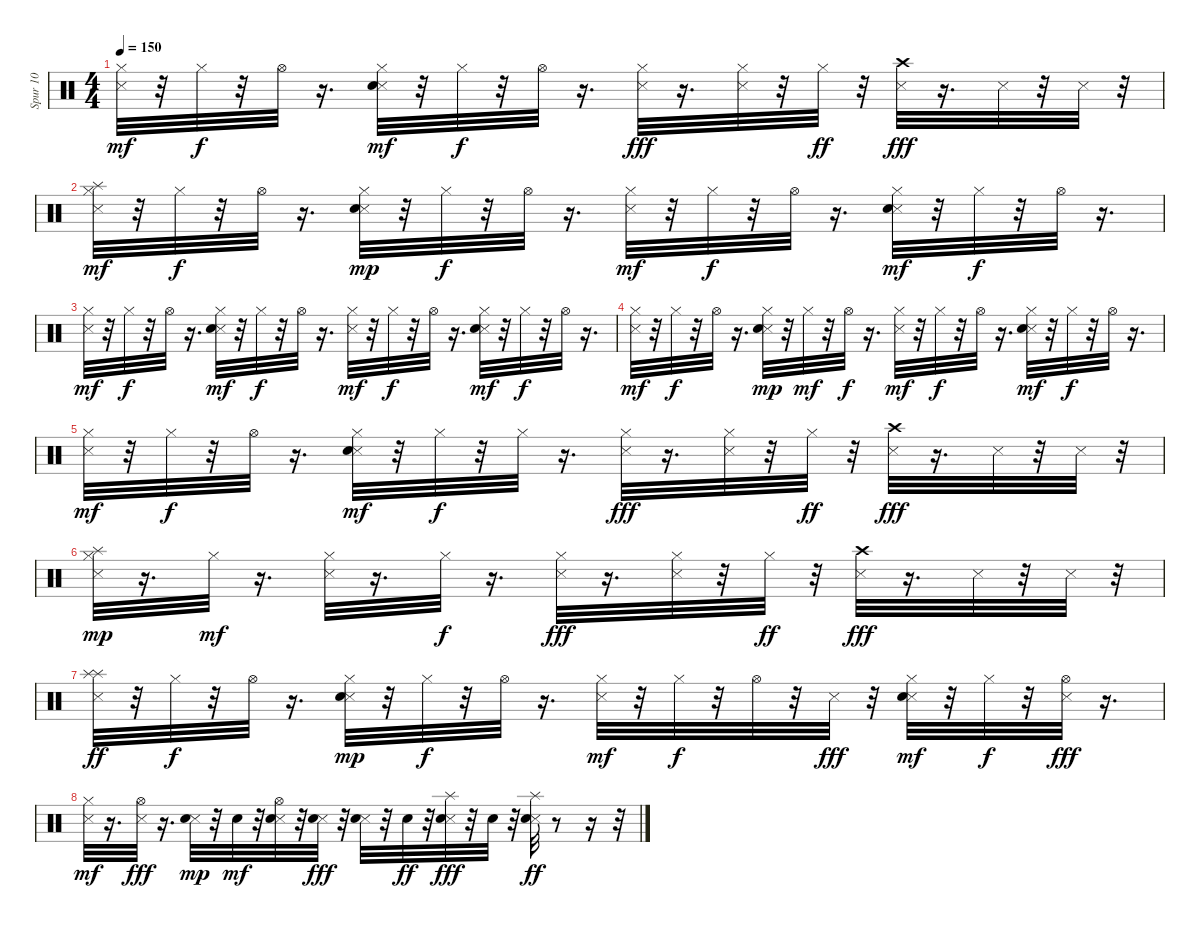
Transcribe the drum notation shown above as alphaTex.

\track ("Spur 10" "Spur 10") {instrument percussion}
\staff {score}
\articulation defaults
\ts (4 4)
\tempo 150
\clef neutral
\ks c
("Metronome (hit)" "Hi-Hat (closed)").32{dy mf} r.32 "Hi-Hat (closed)".32{dy f} r.32 "Hi-Hat (open)".32 r.16{d} ("Metronome (hit)" "Snare (hit) 2" "Hi-Hat (closed)").32{dy mf} r.32 "Hi-Hat (closed)".32{dy f} r.32 "Hi-Hat (open)".32 r.16{d} ("Metronome (hit)" "Hi-Hat (closed)").32{dy fff} r.16{d} ("Metronome (hit)" "Hi-Hat (closed)").32 r.32 "Hi-Hat (closed)".32{dy ff} r.32 ("Metronome (hit)" "Crash high (hit)").32{dy fff} r.16{d} "Metronome (hit)".32 r.32 "Metronome (hit)".32 r.32 |
("Splash (hit)" "Metronome (hit)" "Hi-Hat (closed)").32{dy mf} r.32 "Hi-Hat (closed)".32{dy f} r.32 "Hi-Hat (open)".32 r.16{d} ("Metronome (hit)" "Snare (hit) 2" "Hi-Hat (closed)").32{dy mp} r.32 "Hi-Hat (closed)".32{dy f} r.32 "Hi-Hat (open)".32 r.16{d} ("Metronome (hit)" "Hi-Hat (closed)").32{dy mf} r.32 "Hi-Hat (closed)".32{dy f} r.32 "Hi-Hat (open)".32 r.16{d} ("Metronome (hit)" "Snare (hit) 2" "Hi-Hat (closed)").32{dy mf} r.32 "Hi-Hat (closed)".32{dy f} r.32 "Hi-Hat (open)".32 r.16{d} |
("Metronome (hit)" "Hi-Hat (closed)").32{dy mf} r.32 "Hi-Hat (closed)".32{dy f} r.32 "Hi-Hat (open)".32 r.16{d} ("Metronome (hit)" "Snare (hit) 2" "Hi-Hat (closed)").32{dy mf} r.32 "Hi-Hat (closed)".32{dy f} r.32 "Hi-Hat (open)".32 r.16{d} ("Metronome (hit)" "Hi-Hat (closed)").32{dy mf} r.32 "Hi-Hat (closed)".32{dy f} r.32 "Hi-Hat (open)".32 r.16{d} ("Metronome (hit)" "Snare (hit) 2" "Hi-Hat (closed)").32{dy mf} r.32 "Hi-Hat (closed)".32{dy f} r.32 "Hi-Hat (open)".32 r.16{d} |
("Metronome (hit)" "Hi-Hat (closed)").32{dy mf} r.32 "Hi-Hat (closed)".32{dy f} r.32 "Hi-Hat (open)".32 r.16{d} ("Metronome (hit)" "Snare (hit) 2" "Hi-Hat (closed)").32{dy mp} r.32 "Hi-Hat (closed)".32{dy mf} r.32 "Hi-Hat (open)".32{dy f} r.16{d} ("Metronome (hit)" "Hi-Hat (closed)").32{dy mf} r.32 "Hi-Hat (closed)".32{dy f} r.32 "Hi-Hat (open)".32 r.16{d} ("Metronome (hit)" "Snare (hit) 2" "Hi-Hat (closed)").32{dy mf} r.32 "Hi-Hat (closed)".32{dy f} r.32 "Hi-Hat (open)".32 r.16{d} |
("Metronome (hit)" "Hi-Hat (closed)").32{dy mf} r.32 "Hi-Hat (closed)".32{dy f} r.32 "Hi-Hat (open)".32 r.16{d} ("Metronome (hit)" "Snare (hit) 2" "Hi-Hat (closed)").32{dy mf} r.32 "Hi-Hat (closed)".32{dy f} r.32 "Hi-Hat (closed)".32 r.16{d} ("Metronome (hit)" "Hi-Hat (closed)").32{dy fff} r.16{d} ("Metronome (hit)" "Hi-Hat (closed)").32 r.32 "Hi-Hat (closed)".32{dy ff} r.32 ("Metronome (hit)" "Crash high (hit)").32{dy fff} r.16{d} "Metronome (hit)".32 r.32 "Metronome (hit)".32 r.32 |
("Splash (hit)" "Metronome (hit)" "Hi-Hat (closed)").32{dy mp} r.16{d} "Hi-Hat (closed)".32{dy mf} r.16{d} ("Metronome (hit)" "Hi-Hat (closed)").32 r.16{d} "Hi-Hat (closed)".32{dy f} r.16{d} ("Metronome (hit)" "Hi-Hat (closed)").32{dy fff} r.16{d} ("Metronome (hit)" "Hi-Hat (closed)").32 r.32 "Hi-Hat (closed)".32{dy ff} r.32 ("Metronome (hit)" "Crash high (hit)").32{dy fff} r.16{d} "Metronome (hit)".32 r.32 "Metronome (hit)".32 r.32 |
("Splash (hit)" "Metronome (hit)" "Splash (hit)").32{dy ff} r.32 "Hi-Hat (closed)".32{dy f} r.32 "Hi-Hat (open)".32 r.16{d} ("Metronome (hit)" "Snare (hit) 2" "Hi-Hat (closed)").32{dy mp} r.32 "Hi-Hat (closed)".32{dy f} r.32 "Hi-Hat (open)".32 r.16{d} ("Metronome (hit)" "Hi-Hat (closed)").32{dy mf} r.32 "Hi-Hat (closed)".32{dy f} r.32 "Hi-Hat (open)".32 r.32 "Metronome (hit)".32{dy fff} r.32 ("Metronome (hit)" "Snare (hit) 2" "Hi-Hat (closed)").32{dy mf} r.32 "Hi-Hat (closed)".32{dy f} r.32 ("Metronome (hit)" "Hi-Hat (open)").32{dy fff} r.16{d} |
("Metronome (hit)" "Hi-Hat (closed)").32{dy mf} r.16{d} ("Metronome (hit)" "Hi-Hat (open)").32{dy fff} r.16{d} ("Metronome (hit)" "Snare (hit) 2").32{dy mp} r.32 "Snare (hit) 2".32{dy mf} r.32 ("Metronome (hit)" "Snare (hit) 2" "Hi-Hat (open)").32 r.32 ("Metronome (hit)" "Snare (hit) 2").32{dy fff} r.32 ("Metronome (hit)" "Snare (hit) 2").32 r.32 "Snare (hit) 2".32{dy ff} r.32 ("Metronome (hit)" "Snare (hit) 2" "Splash (hit)").32{dy fff} r.32 "Snare (hit) 2".32 r.32 ("Metronome (hit)" "Snare (hit) 2" "Splash (hit)").32{dy ff} r.8 r.16 r.32
